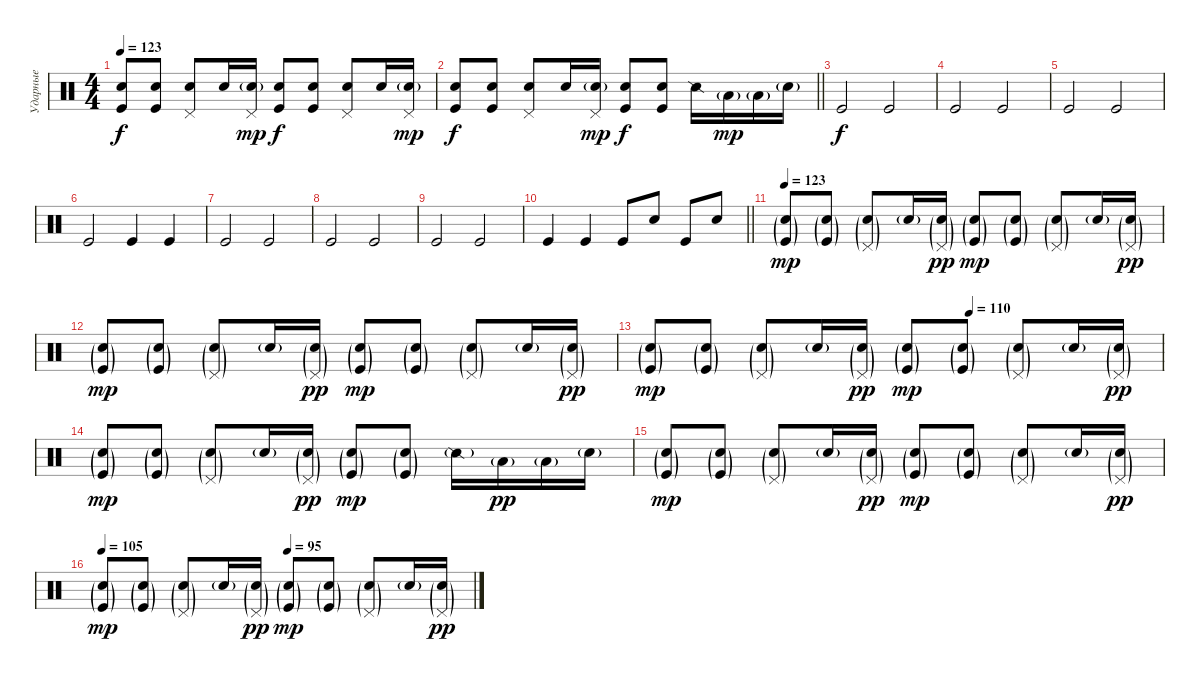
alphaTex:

\track ("Ударные" "Ударные") {instrument percussion}
\staff {score}
\articulation defaults
\ts (4 4)
\tempo 123
\clef neutral
\ks c
("Hand Clap (hit)" "Kick (hit)").8{dy f} ("Hand Clap (hit)" "Kick (hit)").8 ("Pedal Hi-Hat (hit)" "Snare (hit) 2").8 "Hand Clap (hit)".16 ("Pedal Hi-Hat (hit)" "Snare (hit) 2"{g}).16{dy mp} ("Hand Clap (hit)" "Kick (hit)").8{dy f} ("Hand Clap (hit)" "Kick (hit)").8 ("Pedal Hi-Hat (hit)" "Snare (hit) 2").8 "Hand Clap (hit)".16 ("Pedal Hi-Hat (hit)" "Snare (hit) 2"{g}).16{dy mp} |
\barLineRight lightlight
("Hand Clap (hit)" "Kick (hit)").8{dy f} ("Hand Clap (hit)" "Kick (hit)").8 ("Pedal Hi-Hat (hit)" "Snare (hit) 2").8 "Hand Clap (hit)".16 ("Pedal Hi-Hat (hit)" "Snare (hit) 2"{g}).16{dy mp} ("Hand Clap (hit)" "Kick (hit)").8{dy f} ("Hand Clap (hit)" "Kick (hit)").8 "Snare (side stick) 2".16 "Low Tom (hit)"{g}.16{dy mp} "Low Tom (hit)"{g}.16 "Snare (hit) 2"{g}.16 |
"Kick (hit)".2{dy f} "Kick (hit)".2 |
"Kick (hit)".2 "Kick (hit)".2 |
"Kick (hit)".2 "Kick (hit)".2 |
"Kick (hit)".2 "Kick (hit)".4 "Kick (hit)".4 |
"Kick (hit)".2 "Kick (hit)".2 |
"Kick (hit)".2 "Kick (hit)".2 |
"Kick (hit)".2 "Kick (hit)".2 |
\barLineRight lightlight "Kick (hit)".4 "Kick (hit)".4 "Kick (hit)".8 "Hand Clap (hit)".8 "Kick (hit)".8 "Hand Clap (hit)".8
|
\tempo 123
("Hand Clap (hit)"{g} "Kick (hit)"{g}).8{dy mp} ("Hand Clap (hit)"{g} "Kick (hit)"{g}).8 ("Pedal Hi-Hat (hit)"{g} "Snare (hit) 2"{g}).8 "Hand Clap (hit)"{g}.16 ("Pedal Hi-Hat (hit)"{g} "Snare (hit) 2"{g}).16{dy pp} ("Hand Clap (hit)"{g} "Kick (hit)"{g}).8{dy mp} ("Hand Clap (hit)"{g} "Kick (hit)"{g}).8 ("Pedal Hi-Hat (hit)"{g} "Snare (hit) 2"{g}).8 "Hand Clap (hit)"{g}.16 ("Pedal Hi-Hat (hit)"{g} "Snare (hit) 2"{g}).16{dy pp} |
("Hand Clap (hit)"{g} "Kick (hit)"{g}).8{dy mp} ("Hand Clap (hit)"{g} "Kick (hit)"{g}).8 ("Pedal Hi-Hat (hit)"{g} "Snare (hit) 2"{g}).8 "Hand Clap (hit)"{g}.16 ("Pedal Hi-Hat (hit)"{g} "Snare (hit) 2"{g}).16{dy pp} ("Hand Clap (hit)"{g} "Kick (hit)"{g}).8{dy mp} ("Hand Clap (hit)"{g} "Kick (hit)"{g}).8 ("Pedal Hi-Hat (hit)"{g} "Snare (hit) 2"{g}).8 "Hand Clap (hit)"{g}.16 ("Pedal Hi-Hat (hit)"{g} "Snare (hit) 2"{g}).16{dy pp} |
\tempo (110 0.625)
("Hand Clap (hit)"{g} "Kick (hit)"{g}).8{dy mp} ("Hand Clap (hit)"{g} "Kick (hit)"{g}).8 ("Pedal Hi-Hat (hit)"{g} "Snare (hit) 2"{g}).8 "Hand Clap (hit)"{g}.16 ("Pedal Hi-Hat (hit)"{g} "Snare (hit) 2"{g}).16{dy pp} ("Hand Clap (hit)"{g} "Kick (hit)"{g}).8{dy mp} ("Hand Clap (hit)"{g} "Kick (hit)"{g}).8 ("Pedal Hi-Hat (hit)"{g} "Snare (hit) 2"{g}).8 "Hand Clap (hit)"{g}.16 ("Pedal Hi-Hat (hit)"{g} "Snare (hit) 2"{g}).16{dy pp} |
("Hand Clap (hit)"{g} "Kick (hit)"{g}).8{dy mp} ("Hand Clap (hit)"{g} "Kick (hit)"{g}).8 ("Pedal Hi-Hat (hit)"{g} "Snare (hit) 2"{g}).8 "Hand Clap (hit)"{g}.16 ("Pedal Hi-Hat (hit)"{g} "Snare (hit) 2"{g}).16{dy pp} ("Hand Clap (hit)"{g} "Kick (hit)"{g}).8{dy mp} ("Hand Clap (hit)"{g} "Kick (hit)"{g}).8 "Snare (side stick) 2"{g}.16 "Low Tom (hit)"{g}.16{dy pp} "Low Tom (hit)"{g}.16 "Snare (hit) 2"{g}.16 |
("Hand Clap (hit)"{g} "Kick (hit)"{g}).8{dy mp} ("Hand Clap (hit)"{g} "Kick (hit)"{g}).8 ("Pedal Hi-Hat (hit)"{g} "Snare (hit) 2"{g}).8 "Hand Clap (hit)"{g}.16 ("Pedal Hi-Hat (hit)"{g} "Snare (hit) 2"{g}).16{dy pp} ("Hand Clap (hit)"{g} "Kick (hit)"{g}).8{dy mp} ("Hand Clap (hit)"{g} "Kick (hit)"{g}).8 ("Pedal Hi-Hat (hit)"{g} "Snare (hit) 2"{g}).8 "Hand Clap (hit)"{g}.16 ("Pedal Hi-Hat (hit)"{g} "Snare (hit) 2"{g}).16{dy pp} |
\tempo 105
\tempo (95 0.5)
("Hand Clap (hit)"{g} "Kick (hit)"{g}).8{dy mp} ("Hand Clap (hit)"{g} "Kick (hit)"{g}).8 ("Pedal Hi-Hat (hit)"{g} "Snare (hit) 2"{g}).8 "Hand Clap (hit)"{g}.16 ("Pedal Hi-Hat (hit)"{g} "Snare (hit) 2"{g}).16{dy pp} ("Hand Clap (hit)"{g} "Kick (hit)"{g}).8{dy mp} ("Hand Clap (hit)"{g} "Kick (hit)"{g}).8 ("Pedal Hi-Hat (hit)"{g} "Snare (hit) 2"{g}).8 "Hand Clap (hit)"{g}.16 ("Pedal Hi-Hat (hit)"{g} "Snare (hit) 2"{g}).16{dy pp}
